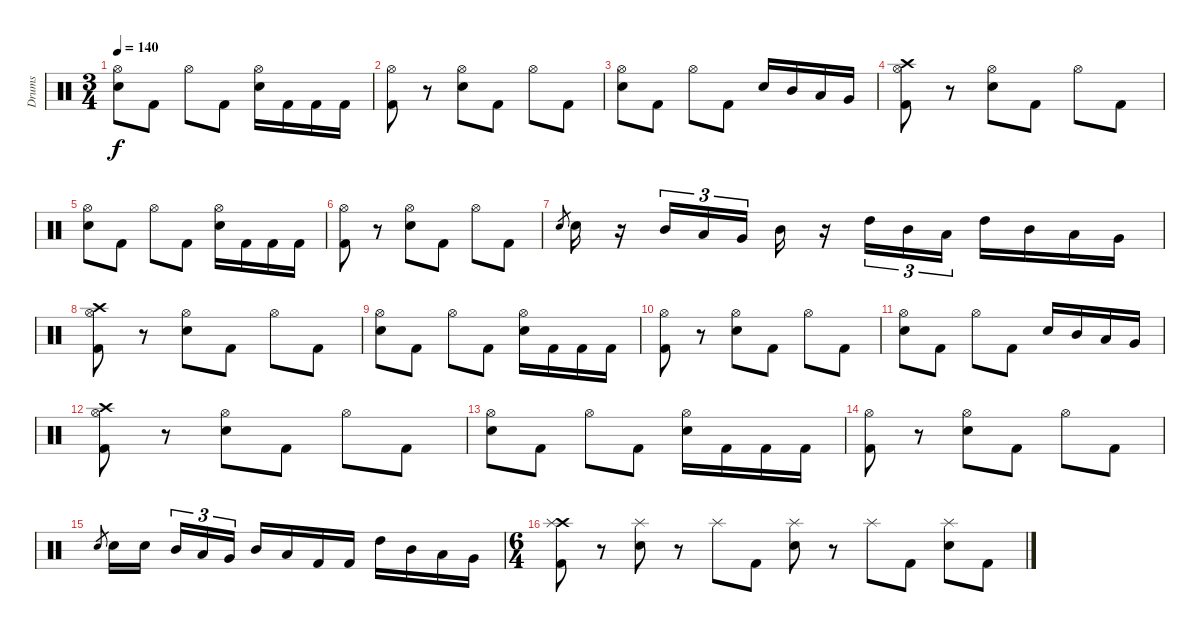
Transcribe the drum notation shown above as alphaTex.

\track ("Drums" "Drums") {instrument percussion}
\staff {score}
\articulation defaults
\ts (3 4)
\tempo 140
\clef neutral
\ks c
("Hi-Hat (open)" "Electric Snare (hit)").8{dy f} "Kick (hit) 2".8 "Hi-Hat (open)".8 "Kick (hit) 2".8 ("Hi-Hat (open)" "Electric Snare (hit)").16 "Kick (hit) 2".16 "Kick (hit) 2".16 "Kick (hit) 2".16 |
("Hi-Hat (open)" "Kick (hit) 2").8 r.8 ("Hi-Hat (open)" "Electric Snare (hit)").8 "Kick (hit) 2".8 "Hi-Hat (open)".8 "Kick (hit) 2".8 |
("Hi-Hat (open)" "Electric Snare (hit)").8 "Kick (hit) 2".8 "Hi-Hat (open)".8 "Kick (hit) 2".8 "Electric Snare (hit)".16 "Mid Tom (hit)".16 "Low Tom (hit)".16 "Very Low Tom (hit)".16 |
("Crash high (hit)" "Hi-Hat (open)" "Kick (hit) 2").8 r.8 ("Hi-Hat (open)" "Electric Snare (hit)").8 "Kick (hit) 2".8 "Hi-Hat (open)".8 "Kick (hit) 2".8 |
("Hi-Hat (open)" "Electric Snare (hit)").8 "Kick (hit) 2".8 "Hi-Hat (open)".8 "Kick (hit) 2".8 ("Hi-Hat (open)" "Electric Snare (hit)").16 "Kick (hit) 2".16 "Kick (hit) 2".16 "Kick (hit) 2".16 |
("Hi-Hat (open)" "Kick (hit) 2").8 r.8 ("Hi-Hat (open)" "Electric Snare (hit)").8 "Kick (hit) 2".8 "Hi-Hat (open)".8 "Kick (hit) 2".8 |
"Electric Snare (hit)".8{gr} "Electric Snare (hit)".16 r.16 "Mid Tom (hit)".16{tu (3 2)} "Low Tom (hit)".16{tu (3 2)} "Very Low Tom (hit)".16{tu (3 2)} "Mid Tom (hit)".16 r.16 "High Tom (hit)".16{tu (3 2)} "Mid Tom (hit)".16{tu (3 2)} "Low Tom (hit)".16{tu (3 2)} "High Tom (hit)".16 "Mid Tom (hit)".16 "Low Tom (hit)".16 "Very Low Tom (hit)".16 |
("Crash high (hit)" "Hi-Hat (open)" "Kick (hit) 2").8 r.8 ("Hi-Hat (open)" "Electric Snare (hit)").8 "Kick (hit) 2".8 "Hi-Hat (open)".8 "Kick (hit) 2".8 |
("Hi-Hat (open)" "Electric Snare (hit)").8 "Kick (hit) 2".8 "Hi-Hat (open)".8 "Kick (hit) 2".8 ("Hi-Hat (open)" "Electric Snare (hit)").16 "Kick (hit) 2".16 "Kick (hit) 2".16 "Kick (hit) 2".16 |
("Hi-Hat (open)" "Kick (hit) 2").8 r.8 ("Hi-Hat (open)" "Electric Snare (hit)").8 "Kick (hit) 2".8 "Hi-Hat (open)".8 "Kick (hit) 2".8 |
("Hi-Hat (open)" "Electric Snare (hit)").8 "Kick (hit) 2".8 "Hi-Hat (open)".8 "Kick (hit) 2".8 "Electric Snare (hit)".16 "Mid Tom (hit)".16 "Low Tom (hit)".16 "Very Low Tom (hit)".16 |
("Crash high (hit)" "Hi-Hat (open)" "Kick (hit) 2").8 r.8 ("Hi-Hat (open)" "Electric Snare (hit)").8 "Kick (hit) 2".8 "Hi-Hat (open)".8 "Kick (hit) 2".8 |
("Hi-Hat (open)" "Electric Snare (hit)").8 "Kick (hit) 2".8 "Hi-Hat (open)".8 "Kick (hit) 2".8 ("Hi-Hat (open)" "Electric Snare (hit)").16 "Kick (hit) 2".16 "Kick (hit) 2".16 "Kick (hit) 2".16 |
("Hi-Hat (open)" "Kick (hit) 2").8 r.8 ("Hi-Hat (open)" "Electric Snare (hit)").8 "Kick (hit) 2".8 "Hi-Hat (open)".8 "Kick (hit) 2".8 |
"Electric Snare (hit)".8{gr} "Electric Snare (hit)".16 "Electric Snare (hit)".16 "Mid Tom (hit)".16{tu (3 2)} "Low Tom (hit)".16{tu (3 2)} "Very Low Tom (hit)".16{tu (3 2)} "Mid Tom (hit)".16 "Low Tom (hit)".16 "Kick (hit) 2".16 "Kick (hit) 2".16 "High Tom (hit)".16 "Mid Tom (hit)".16 "Low Tom (hit)".16 "Very Low Tom (hit)".16 |
\ts (6 4)
("Crash high (hit)" "Splash (hit)" "Kick (hit) 2").8 r.8 ("Splash (hit)" "Electric Snare (hit)").8 r.8 "Splash (hit)".8 "Kick (hit) 2".8 ("Splash (hit)" "Electric Snare (hit)").8 r.8 "Splash (hit)".8 "Kick (hit) 2".8 ("Splash (hit)" "Electric Snare (hit)").8 "Kick (hit) 2".8
